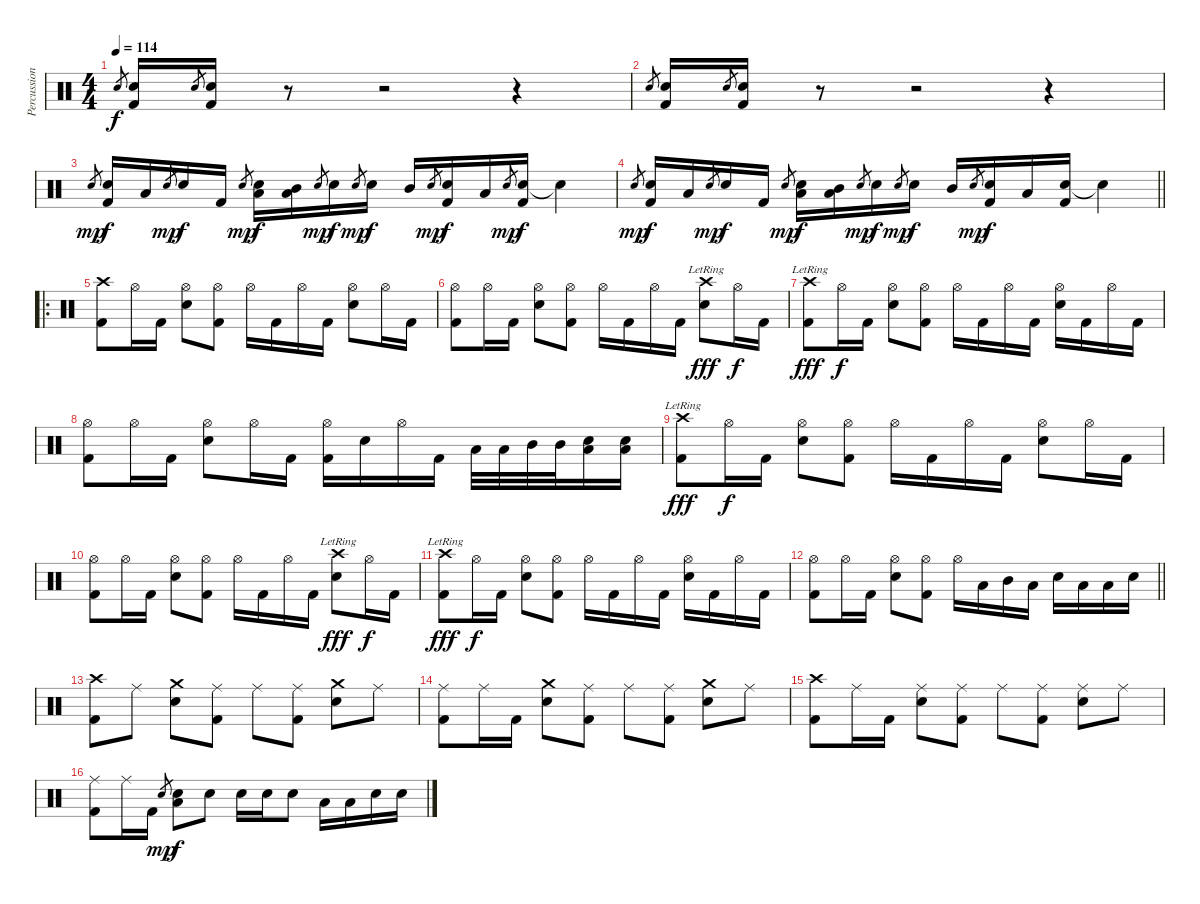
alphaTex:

\track ("Percussion" "Percussion") {instrument percussion}
\staff {score}
\articulation defaults
\ts (4 4)
\tempo 114
\clef neutral
\ks c "Snare (hit) 2".8{gr dy f}
("Snare (hit) 2" "Kick (hit) 2").16 "Snare (hit) 2".8{gr} ("Snare (hit) 2" "Kick (hit) 2").16 r.8 r.2 r.4 |
"Snare (hit) 2".8{gr} ("Snare (hit) 2" "Kick (hit) 2").16 "Snare (hit) 2".8{gr} ("Snare (hit) 2" "Kick (hit) 2").16 r.8 r.2 r.4 |
"Snare (hit) 2".8{gr dy mp} ("Snare (hit) 2" "Kick (hit) 2").16{dy f} "Low Tom (hit)".16 "Snare (hit) 2".8{gr dy mp} "Snare (hit) 2".16{dy f} "Kick (hit) 2".16 "Snare (hit) 2".8{gr dy mp} ("Low Tom (hit)" "Snare (hit) 2").16{dy f} ("Mid Tom (hit)" "Low Tom (hit)").16 "Snare (hit) 2".8{gr dy mp} "Snare (hit) 2".16{dy f} "Snare (hit) 2".8{gr dy mp} "Snare (hit) 2".16{dy f} "Mid Tom (hit)".16 "Snare (hit) 2".8{gr dy mp} ("Snare (hit) 2" "Kick (hit) 2").16{dy f} "Low Tom (hit)".16 "Snare (hit) 2".8{gr dy mp} ("Snare (hit) 2" "Kick (hit) 2").16{dy f} "Snare (hit)"{t}.4 |
\barLineRight lightlight "Snare (hit) 2".8{gr dy mp}
("Snare (hit) 2" "Kick (hit) 2").16{dy f} "Low Tom (hit)".16 "Snare (hit) 2".8{gr dy mp} "Snare (hit) 2".16{dy f} "Kick (hit) 2".16 "Snare (hit) 2".8{gr dy mp} ("Low Tom (hit)" "Snare (hit) 2").16{dy f} ("Mid Tom (hit)" "Low Tom (hit)").16 "Snare (hit) 2".8{gr dy mp} "Snare (hit) 2".16{dy f} "Snare (hit) 2".8{gr dy mp} "Snare (hit) 2".16{dy f} "Mid Tom (hit)".16 "Snare (hit) 2".8{gr dy mp} ("Snare (hit) 2" "Kick (hit) 2").16{dy f} "Low Tom (hit)".16 ("Snare (hit) 2" "Kick (hit) 2").16 "Snare (hit)"{t}.4 |
\ro
("Crash high (hit)" "Kick (hit) 2").8 "Hi-Hat (open)".16 "Kick (hit) 2".16 ("Hi-Hat (open)" "Snare (hit) 2").8 ("Hi-Hat (open)" "Kick (hit) 2").8 "Hi-Hat (open)".16 "Kick (hit) 2".16 "Hi-Hat (open)".16 "Kick (hit) 2".16 ("Hi-Hat (open)" "Snare (hit) 2").8 "Hi-Hat (open)".16 "Kick (hit) 2".16 |
("Hi-Hat (open)" "Kick (hit) 2").8 "Hi-Hat (open)".16 "Kick (hit) 2".16 ("Hi-Hat (open)" "Snare (hit) 2").8 ("Hi-Hat (open)" "Kick (hit) 2").8 "Hi-Hat (open)".16 "Kick (hit) 2".16 "Hi-Hat (open)".16 "Kick (hit) 2".16 ("Crash high (hit)"{lr} "Snare (hit) 2").8{dy fff} "Hi-Hat (open)".16{dy f} "Kick (hit) 2".16 |
("Crash high (hit)"{lr} "Kick (hit) 2").8{dy fff} "Hi-Hat (open)".16{dy f} "Kick (hit) 2".16 ("Hi-Hat (open)" "Snare (hit) 2").8 ("Hi-Hat (open)" "Kick (hit) 2").8 "Hi-Hat (open)".16 "Kick (hit) 2".16 "Hi-Hat (open)".16 "Kick (hit) 2".16 ("Hi-Hat (open)" "Snare (hit) 2").16 "Kick (hit) 2".16 "Hi-Hat (open)".16 "Kick (hit) 2".16 |
("Hi-Hat (open)" "Kick (hit) 2").8 "Hi-Hat (open)".16 "Kick (hit) 2".16 ("Hi-Hat (open)" "Snare (hit) 2").8 "Hi-Hat (open)".16 "Kick (hit) 2".16 ("Hi-Hat (open)" "Kick (hit) 2").16 "Snare (hit) 2".16 "Hi-Hat (open)".16 "Kick (hit) 2".16 "Low Tom (hit)".32 "Low Tom (hit)".32 "Mid Tom (hit)".32 "Mid Tom (hit)".32 ("Low Tom (hit)" "Snare (hit) 2").16 ("Low Tom (hit)" "Snare (hit) 2").16 |
("Crash high (hit)"{lr} "Kick (hit) 2").8{dy fff} "Hi-Hat (open)".16{dy f} "Kick (hit) 2".16 ("Hi-Hat (open)" "Snare (hit) 2").8 ("Hi-Hat (open)" "Kick (hit) 2").8 "Hi-Hat (open)".16 "Kick (hit) 2".16 "Hi-Hat (open)".16 "Kick (hit) 2".16 ("Hi-Hat (open)" "Snare (hit) 2").8 "Hi-Hat (open)".16 "Kick (hit) 2".16 |
("Hi-Hat (open)" "Kick (hit) 2").8 "Hi-Hat (open)".16 "Kick (hit) 2".16 ("Hi-Hat (open)" "Snare (hit) 2").8 ("Hi-Hat (open)" "Kick (hit) 2").8 "Hi-Hat (open)".16 "Kick (hit) 2".16 "Hi-Hat (open)".16 "Kick (hit) 2".16 ("Crash high (hit)"{lr} "Snare (hit) 2").8{dy fff} "Hi-Hat (open)".16{dy f} "Kick (hit) 2".16 |
("Crash high (hit)"{lr} "Kick (hit) 2").8{dy fff} "Hi-Hat (open)".16{dy f} "Kick (hit) 2".16 ("Hi-Hat (open)" "Snare (hit) 2").8 ("Hi-Hat (open)" "Kick (hit) 2").8 "Hi-Hat (open)".16 "Kick (hit) 2".16 "Hi-Hat (open)".16 "Kick (hit) 2".16 ("Hi-Hat (open)" "Snare (hit) 2").16 "Kick (hit) 2".16 "Hi-Hat (open)".16 "Kick (hit) 2".16 |
\barLineRight lightlight
("Hi-Hat (open)" "Kick (hit) 2").8 "Hi-Hat (open)".16 "Kick (hit) 2".16 ("Hi-Hat (open)" "Snare (hit) 2").8 ("Hi-Hat (open)" "Kick (hit) 2").8 "Hi-Hat (open)".16 "Low Tom (hit)".16 "Mid Tom (hit)".16 "Low Tom (hit)".16 "Snare (hit) 2".16 "Low Tom (hit)".16 "Low Tom (hit)".16 "Snare (hit) 2".16 |
("Crash high (hit)" "Kick (hit) 2").8 "Ride (middle)".8 ("Crash medium (hit)" "Snare (hit) 2").8 ("Ride (middle)" "Kick (hit) 2").8 "Ride (middle)".8 ("Ride (middle)" "Kick (hit) 2").8 ("Crash medium (hit)" "Snare (hit) 2").8 "Ride (middle)".8 |
("Ride (middle)" "Kick (hit) 2").8 "Ride (middle)".16 "Kick (hit) 2".16 ("Crash medium (hit)" "Snare (hit) 2").8 ("Ride (middle)" "Kick (hit) 2").8 "Ride (middle)".8 ("Ride (middle)" "Kick (hit) 2").8 ("Crash medium (hit)" "Snare (hit) 2").8 "Ride (middle)".8 |
("Crash high (hit)" "Kick (hit) 2").8 "Ride (middle)".16 "Kick (hit) 2".16 ("Ride (middle)" "Snare (hit) 2").8 ("Ride (middle)" "Kick (hit) 2").8 "Ride (middle)".8 ("Ride (middle)" "Kick (hit) 2").8 ("Ride (middle)" "Snare (hit) 2").8 "Ride (middle)".8 |
("Ride (middle)" "Kick (hit) 2").8 "Ride (middle)".16 "Kick (hit) 2".16 "Snare (hit) 2".8{gr dy mp} ("Low Tom (hit)" "Snare (hit) 2").8{dy f} "Snare (hit) 2".8 "Snare (hit) 2".16 "Snare (hit) 2".16 "Snare (hit) 2".8 "Low Tom (hit)".16 "Low Tom (hit)".16 "Snare (hit) 2".16 "Snare (hit) 2".16
